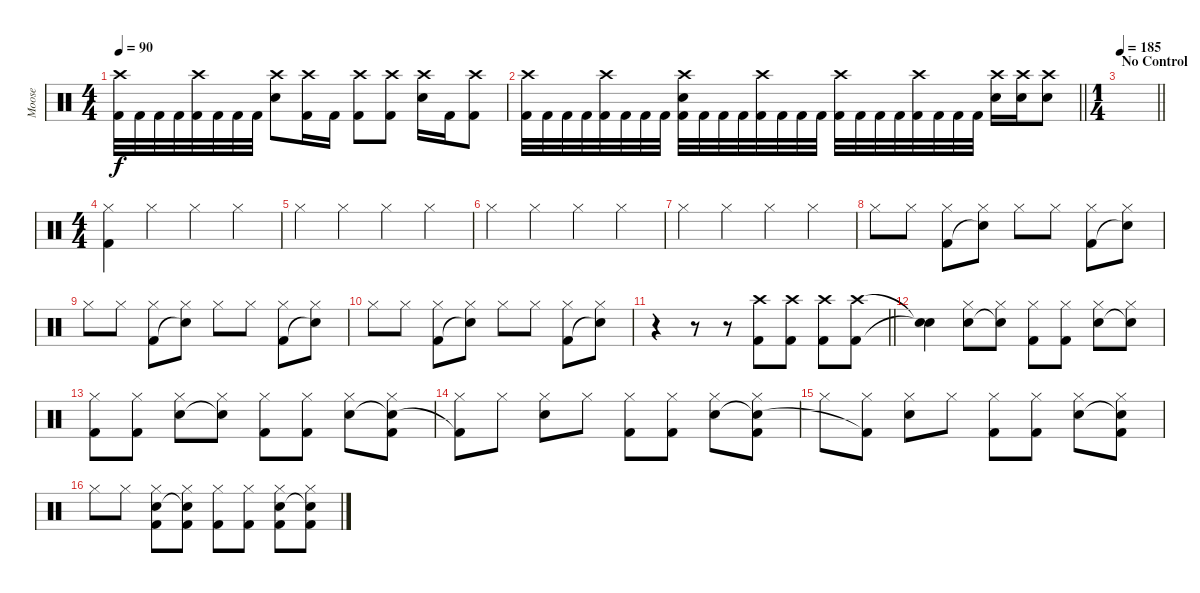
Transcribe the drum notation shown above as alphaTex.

\track ("Moose" "Moose") {instrument percussion}
\staff {score}
\articulation defaults
\ts (4 4)
\tempo 90
\clef neutral
\ks c
("Crash high (hit)" "Kick (hit) 2").32{dy f} "Kick (hit) 2".32 "Kick (hit) 2".32 "Kick (hit) 2".32 ("Crash high (hit)" "Kick (hit) 2").32 "Kick (hit) 2".32 "Kick (hit) 2".32 "Kick (hit) 2".32 ("Crash high (hit)" "Snare (hit) 2").8 ("Crash high (hit)" "Kick (hit) 2").16 "Kick (hit) 2".16 ("Crash high (hit)" "Kick (hit) 2").8 ("Crash high (hit)" "Kick (hit) 2").8 ("Crash high (hit)" "Snare (hit) 2").16 "Kick (hit) 2".16 ("Crash high (hit)" "Kick (hit) 2").8 |
\barLineRight lightlight
("Crash high (hit)" "Kick (hit) 2").32 "Kick (hit) 2".32 "Kick (hit) 2".32 "Kick (hit) 2".32 ("Crash high (hit)" "Kick (hit) 2").32 "Kick (hit) 2".32 "Kick (hit) 2".32 "Kick (hit) 2".32 ("Crash high (hit)" "Snare (hit) 2" "Kick (hit) 2").32 "Kick (hit) 2".32 "Kick (hit) 2".32 "Kick (hit) 2".32 ("Crash high (hit)" "Kick (hit) 2").32 "Kick (hit) 2".32 "Kick (hit) 2".32 "Kick (hit) 2".32 ("Crash high (hit)" "Kick (hit) 2").32 "Kick (hit) 2".32 "Kick (hit) 2".32 "Kick (hit) 2".32 ("Crash high (hit)" "Kick (hit) 2").32 "Kick (hit) 2".32 "Kick (hit) 2".32 "Kick (hit) 2".32 ("Crash high (hit)" "Snare (hit) 2").16 ("Crash high (hit)" "Snare (hit) 2").16 ("Crash high (hit)" "Snare (hit) 2").8 |
\ts (1 4)
\section ("" "No Control")
\tempo 185
\barLineRight lightlight
|
\ts (4 4)
("Hi-Hat (closed)" "Kick (hit) 2").4 "Hi-Hat (closed)".4 "Hi-Hat (closed)".4 "Hi-Hat (closed)".4 |
"Hi-Hat (closed)".4 "Hi-Hat (closed)".4 "Hi-Hat (closed)".4 "Hi-Hat (closed)".4 |
"Hi-Hat (closed)".4 "Hi-Hat (closed)".4 "Hi-Hat (closed)".4 "Hi-Hat (closed)".4 |
"Hi-Hat (closed)".4 "Hi-Hat (closed)".4 "Hi-Hat (closed)".4 "Hi-Hat (closed)".4 |
"Hi-Hat (closed)".8 "Hi-Hat (closed)".8 ("Hi-Hat (closed)" "Kick (hit) 2").8 ("Hi-Hat (closed)" "Snare (hit)"{t}).8 "Hi-Hat (closed)".8 "Hi-Hat (closed)".8 ("Hi-Hat (closed)" "Kick (hit) 2").8 ("Hi-Hat (closed)" "Snare (hit)"{t}).8 |
"Hi-Hat (closed)".8 "Hi-Hat (closed)".8 ("Hi-Hat (closed)" "Kick (hit) 2").8 ("Hi-Hat (closed)" "Snare (hit)"{t}).8 "Hi-Hat (closed)".8 "Hi-Hat (closed)".8 ("Hi-Hat (closed)" "Kick (hit) 2").8 ("Hi-Hat (closed)" "Snare (hit)"{t}).8 |
"Hi-Hat (closed)".8 "Hi-Hat (closed)".8 ("Hi-Hat (closed)" "Kick (hit) 2").8 ("Hi-Hat (closed)" "Snare (hit)"{t}).8 "Hi-Hat (closed)".8 "Hi-Hat (closed)".8 ("Hi-Hat (closed)" "Kick (hit) 2").8 ("Hi-Hat (closed)" "Snare (hit)"{t}).8 |
\barLineRight lightlight
r.4 r.8 r.8 ("Crash high (hit)" "Kick (hit) 2").8 ("Crash high (hit)" "Kick (hit) 2").8 ("Crash high (hit)" "Kick (hit) 2").8 ("Crash high (hit)" "Kick (hit) 2").8 |
("Snare (hit)"{t} "Snare (hit)"{t}).4 ("Hi-Hat (closed)" "Snare (hit) 2").8 ("Hi-Hat (closed)" "Snare (hit) 2"{t}).8 ("Hi-Hat (closed)" "Kick (hit) 2").8 ("Hi-Hat (closed)" "Kick (hit) 2").8 ("Hi-Hat (closed)" "Snare (hit) 2").8 ("Hi-Hat (closed)" "Snare (hit)"{t}).8 |
("Hi-Hat (closed)" "Kick (hit) 2").8 ("Hi-Hat (closed)" "Kick (hit) 2").8 ("Hi-Hat (closed)" "Snare (hit) 2").8 ("Hi-Hat (closed)" "Snare (hit)"{t}).8 ("Hi-Hat (closed)" "Kick (hit) 2").8 ("Hi-Hat (closed)" "Kick (hit) 2").8 ("Hi-Hat (closed)" "Snare (hit) 2").8 ("Hi-Hat (closed)" "Snare (hit)"{t} "Kick (hit) 2").8 |
("Hi-Hat (closed)" "Kick (hit) 2"{t}).8 "Hi-Hat (closed)".8 ("Hi-Hat (closed)" "Snare (hit) 2").8 "Hi-Hat (closed)".8 ("Hi-Hat (closed)" "Kick (hit) 2").8 ("Hi-Hat (closed)" "Kick (hit) 2").8 ("Hi-Hat (closed)" "Snare (hit) 2").8 ("Hi-Hat (closed)" "Snare (hit)"{t} "Kick (hit) 2").8 |
"Hi-Hat (closed)".8 ("Hi-Hat (closed)" "Kick (hit) 2"{t}).8 ("Hi-Hat (closed)" "Snare (hit) 2").8 "Hi-Hat (closed)".8 ("Hi-Hat (closed)" "Kick (hit) 2").8 ("Hi-Hat (closed)" "Kick (hit) 2").8 ("Hi-Hat (closed)" "Snare (hit) 2").8 ("Hi-Hat (closed)" "Snare (hit)"{t} "Kick (hit) 2").8 |
"Hi-Hat (closed)".8 "Hi-Hat (closed)".8 ("Hi-Hat (closed)" "Snare (hit) 2" "Kick (hit) 2").8 ("Hi-Hat (closed)" "Snare (hit)"{t} "Kick (hit) 2").8 ("Hi-Hat (closed)" "Kick (hit) 2").8 ("Hi-Hat (closed)" "Kick (hit) 2").8 ("Hi-Hat (closed)" "Snare (hit) 2" "Kick (hit) 2").8 ("Hi-Hat (closed)" "Snare (hit)"{t} "Kick (hit) 2").8
